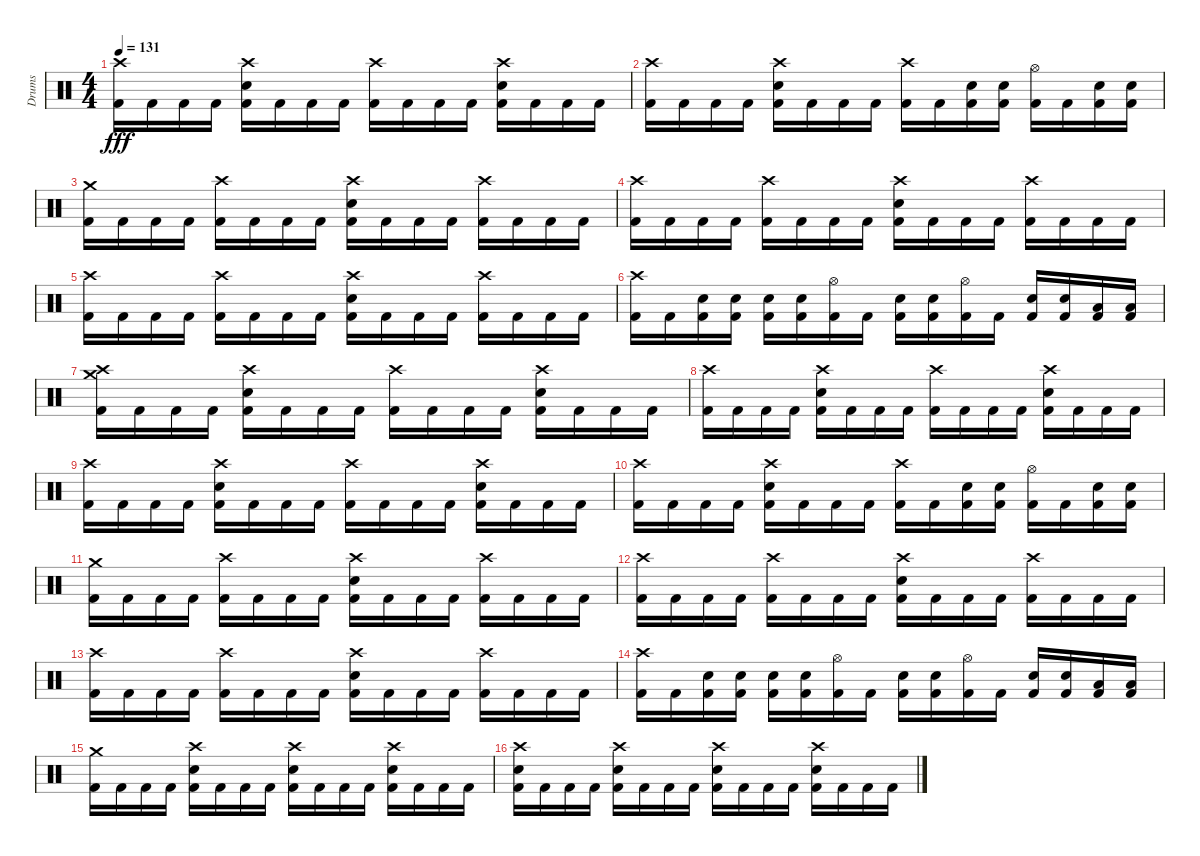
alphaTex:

\track ("Drums" "Drums") {instrument percussion}
\staff {score}
\articulation defaults
\ts (4 4)
\tempo 131
\clef neutral
\ks c
("Crash high (hit)" "Kick (hit) 2").16{dy fff} "Kick (hit) 2".16 "Kick (hit) 2".16 "Kick (hit) 2".16 ("Crash high (hit)" "Electric Snare (hit)" "Kick (hit) 2").16 "Kick (hit) 2".16 "Kick (hit) 2".16 "Kick (hit) 2".16 ("Crash high (hit)" "Kick (hit) 2").16 "Kick (hit) 2".16 "Kick (hit) 2".16 "Kick (hit) 2".16 ("Crash high (hit)" "Electric Snare (hit)" "Kick (hit) 2").16 "Kick (hit) 2".16 "Kick (hit) 2".16 "Kick (hit) 2".16 |
("Crash high (hit)" "Kick (hit) 2").16 "Kick (hit) 2".16 "Kick (hit) 2".16 "Kick (hit) 2".16 ("Crash high (hit)" "Electric Snare (hit)" "Kick (hit) 2").16 "Kick (hit) 2".16 "Kick (hit) 2".16 "Kick (hit) 2".16 ("Crash high (hit)" "Kick (hit) 2").16 "Kick (hit) 2".16 ("Electric Snare (hit)" "Kick (hit) 2").16 ("Electric Snare (hit)" "Kick (hit) 2").16 ("Hi-Hat (open)" "Kick (hit) 2").16 "Kick (hit) 2".16 ("Electric Snare (hit)" "Kick (hit) 2").16 ("Electric Snare (hit)" "Kick (hit) 2").16 |
("Crash medium (hit)" "Kick (hit) 2").16 "Kick (hit) 2".16 "Kick (hit) 2".16 "Kick (hit) 2".16 ("Crash high (hit)" "Kick (hit) 2").16 "Kick (hit) 2".16 "Kick (hit) 2".16 "Kick (hit) 2".16 ("Crash high (hit)" "Electric Snare (hit)" "Kick (hit) 2").16 "Kick (hit) 2".16 "Kick (hit) 2".16 "Kick (hit) 2".16 ("Crash high (hit)" "Kick (hit) 2").16 "Kick (hit) 2".16 "Kick (hit) 2".16 "Kick (hit) 2".16 |
("Crash high (hit)" "Kick (hit) 2").16 "Kick (hit) 2".16 "Kick (hit) 2".16 "Kick (hit) 2".16 ("Crash high (hit)" "Kick (hit) 2").16 "Kick (hit) 2".16 "Kick (hit) 2".16 "Kick (hit) 2".16 ("Crash high (hit)" "Electric Snare (hit)" "Kick (hit) 2").16 "Kick (hit) 2".16 "Kick (hit) 2".16 "Kick (hit) 2".16 ("Crash high (hit)" "Kick (hit) 2").16 "Kick (hit) 2".16 "Kick (hit) 2".16 "Kick (hit) 2".16 |
("Crash high (hit)" "Kick (hit) 2").16 "Kick (hit) 2".16 "Kick (hit) 2".16 "Kick (hit) 2".16 ("Crash high (hit)" "Kick (hit) 2").16 "Kick (hit) 2".16 "Kick (hit) 2".16 "Kick (hit) 2".16 ("Crash high (hit)" "Electric Snare (hit)" "Kick (hit) 2").16 "Kick (hit) 2".16 "Kick (hit) 2".16 "Kick (hit) 2".16 ("Crash high (hit)" "Kick (hit) 2").16 "Kick (hit) 2".16 "Kick (hit) 2".16 "Kick (hit) 2".16 |
("Crash high (hit)" "Kick (hit) 2").16 "Kick (hit) 2".16 ("Electric Snare (hit)" "Kick (hit) 2").16 ("Electric Snare (hit)" "Kick (hit) 2").16 ("Electric Snare (hit)" "Kick (hit) 2").16 ("Electric Snare (hit)" "Kick (hit) 2").16 ("Hi-Hat (open)" "Kick (hit) 2").16 "Kick (hit) 2".16 ("Electric Snare (hit)" "Kick (hit) 2").16 ("Electric Snare (hit)" "Kick (hit) 2").16 ("Hi-Hat (open)" "Kick (hit) 2").16 "Kick (hit) 2".16 ("Electric Snare (hit)" "Kick (hit) 2").16 ("Electric Snare (hit)" "Kick (hit) 2").16 ("Low Tom (hit)" "Kick (hit) 2").16 ("Low Tom (hit)" "Kick (hit) 2").16 |
("Crash medium (hit)" "Crash high (hit)" "Kick (hit) 2").16 "Kick (hit) 2".16 "Kick (hit) 2".16 "Kick (hit) 2".16 ("Crash high (hit)" "Electric Snare (hit)" "Kick (hit) 2").16 "Kick (hit) 2".16 "Kick (hit) 2".16 "Kick (hit) 2".16 ("Crash high (hit)" "Kick (hit) 2").16 "Kick (hit) 2".16 "Kick (hit) 2".16 "Kick (hit) 2".16 ("Crash high (hit)" "Electric Snare (hit)" "Kick (hit) 2").16 "Kick (hit) 2".16 "Kick (hit) 2".16 "Kick (hit) 2".16 |
("Crash high (hit)" "Kick (hit) 2").16 "Kick (hit) 2".16 "Kick (hit) 2".16 "Kick (hit) 2".16 ("Crash high (hit)" "Electric Snare (hit)" "Kick (hit) 2").16 "Kick (hit) 2".16 "Kick (hit) 2".16 "Kick (hit) 2".16 ("Crash high (hit)" "Kick (hit) 2").16 "Kick (hit) 2".16 "Kick (hit) 2".16 "Kick (hit) 2".16 ("Crash high (hit)" "Electric Snare (hit)" "Kick (hit) 2").16 "Kick (hit) 2".16 "Kick (hit) 2".16 "Kick (hit) 2".16 |
("Crash high (hit)" "Kick (hit) 2").16 "Kick (hit) 2".16 "Kick (hit) 2".16 "Kick (hit) 2".16 ("Crash high (hit)" "Electric Snare (hit)" "Kick (hit) 2").16 "Kick (hit) 2".16 "Kick (hit) 2".16 "Kick (hit) 2".16 ("Crash high (hit)" "Kick (hit) 2").16 "Kick (hit) 2".16 "Kick (hit) 2".16 "Kick (hit) 2".16 ("Crash high (hit)" "Electric Snare (hit)" "Kick (hit) 2").16 "Kick (hit) 2".16 "Kick (hit) 2".16 "Kick (hit) 2".16 |
("Crash high (hit)" "Kick (hit) 2").16 "Kick (hit) 2".16 "Kick (hit) 2".16 "Kick (hit) 2".16 ("Crash high (hit)" "Electric Snare (hit)" "Kick (hit) 2").16 "Kick (hit) 2".16 "Kick (hit) 2".16 "Kick (hit) 2".16 ("Crash high (hit)" "Kick (hit) 2").16 "Kick (hit) 2".16 ("Electric Snare (hit)" "Kick (hit) 2").16 ("Electric Snare (hit)" "Kick (hit) 2").16 ("Hi-Hat (open)" "Kick (hit) 2").16 "Kick (hit) 2".16 ("Electric Snare (hit)" "Kick (hit) 2").16 ("Electric Snare (hit)" "Kick (hit) 2").16 |
("Crash medium (hit)" "Kick (hit) 2").16 "Kick (hit) 2".16 "Kick (hit) 2".16 "Kick (hit) 2".16 ("Crash high (hit)" "Kick (hit) 2").16 "Kick (hit) 2".16 "Kick (hit) 2".16 "Kick (hit) 2".16 ("Crash high (hit)" "Electric Snare (hit)" "Kick (hit) 2").16 "Kick (hit) 2".16 "Kick (hit) 2".16 "Kick (hit) 2".16 ("Crash high (hit)" "Kick (hit) 2").16 "Kick (hit) 2".16 "Kick (hit) 2".16 "Kick (hit) 2".16 |
("Crash high (hit)" "Kick (hit) 2").16 "Kick (hit) 2".16 "Kick (hit) 2".16 "Kick (hit) 2".16 ("Crash high (hit)" "Kick (hit) 2").16 "Kick (hit) 2".16 "Kick (hit) 2".16 "Kick (hit) 2".16 ("Crash high (hit)" "Electric Snare (hit)" "Kick (hit) 2").16 "Kick (hit) 2".16 "Kick (hit) 2".16 "Kick (hit) 2".16 ("Crash high (hit)" "Kick (hit) 2").16 "Kick (hit) 2".16 "Kick (hit) 2".16 "Kick (hit) 2".16 |
("Crash high (hit)" "Kick (hit) 2").16 "Kick (hit) 2".16 "Kick (hit) 2".16 "Kick (hit) 2".16 ("Crash high (hit)" "Kick (hit) 2").16 "Kick (hit) 2".16 "Kick (hit) 2".16 "Kick (hit) 2".16 ("Crash high (hit)" "Electric Snare (hit)" "Kick (hit) 2").16 "Kick (hit) 2".16 "Kick (hit) 2".16 "Kick (hit) 2".16 ("Crash high (hit)" "Kick (hit) 2").16 "Kick (hit) 2".16 "Kick (hit) 2".16 "Kick (hit) 2".16 |
("Crash high (hit)" "Kick (hit) 2").16 "Kick (hit) 2".16 ("Electric Snare (hit)" "Kick (hit) 2").16 ("Electric Snare (hit)" "Kick (hit) 2").16 ("Electric Snare (hit)" "Kick (hit) 2").16 ("Electric Snare (hit)" "Kick (hit) 2").16 ("Hi-Hat (open)" "Kick (hit) 2").16 "Kick (hit) 2".16 ("Electric Snare (hit)" "Kick (hit) 2").16 ("Electric Snare (hit)" "Kick (hit) 2").16 ("Hi-Hat (open)" "Kick (hit) 2").16 "Kick (hit) 2".16 ("Electric Snare (hit)" "Kick (hit) 2").16 ("Electric Snare (hit)" "Kick (hit) 2").16 ("Low Tom (hit)" "Kick (hit) 2").16 ("Low Tom (hit)" "Kick (hit) 2").16 |
("Crash medium (hit)" "Kick (hit) 2").16 "Kick (hit) 2".16 "Kick (hit) 2".16 "Kick (hit) 2".16 ("Crash high (hit)" "Electric Snare (hit)" "Kick (hit) 2").16 "Kick (hit) 2".16 "Kick (hit) 2".16 "Kick (hit) 2".16 ("Crash high (hit)" "Electric Snare (hit)" "Kick (hit) 2").16 "Kick (hit) 2".16 "Kick (hit) 2".16 "Kick (hit) 2".16 ("Crash high (hit)" "Electric Snare (hit)" "Kick (hit) 2").16 "Kick (hit) 2".16 "Kick (hit) 2".16 "Kick (hit) 2".16 |
("Crash high (hit)" "Electric Snare (hit)" "Kick (hit) 2").16 "Kick (hit) 2".16 "Kick (hit) 2".16 "Kick (hit) 2".16 ("Crash high (hit)" "Electric Snare (hit)" "Kick (hit) 2").16 "Kick (hit) 2".16 "Kick (hit) 2".16 "Kick (hit) 2".16 ("Crash high (hit)" "Electric Snare (hit)" "Kick (hit) 2").16 "Kick (hit) 2".16 "Kick (hit) 2".16 "Kick (hit) 2".16 ("Crash high (hit)" "Electric Snare (hit)" "Kick (hit) 2").16 "Kick (hit) 2".16 "Kick (hit) 2".16 "Kick (hit) 2".16
